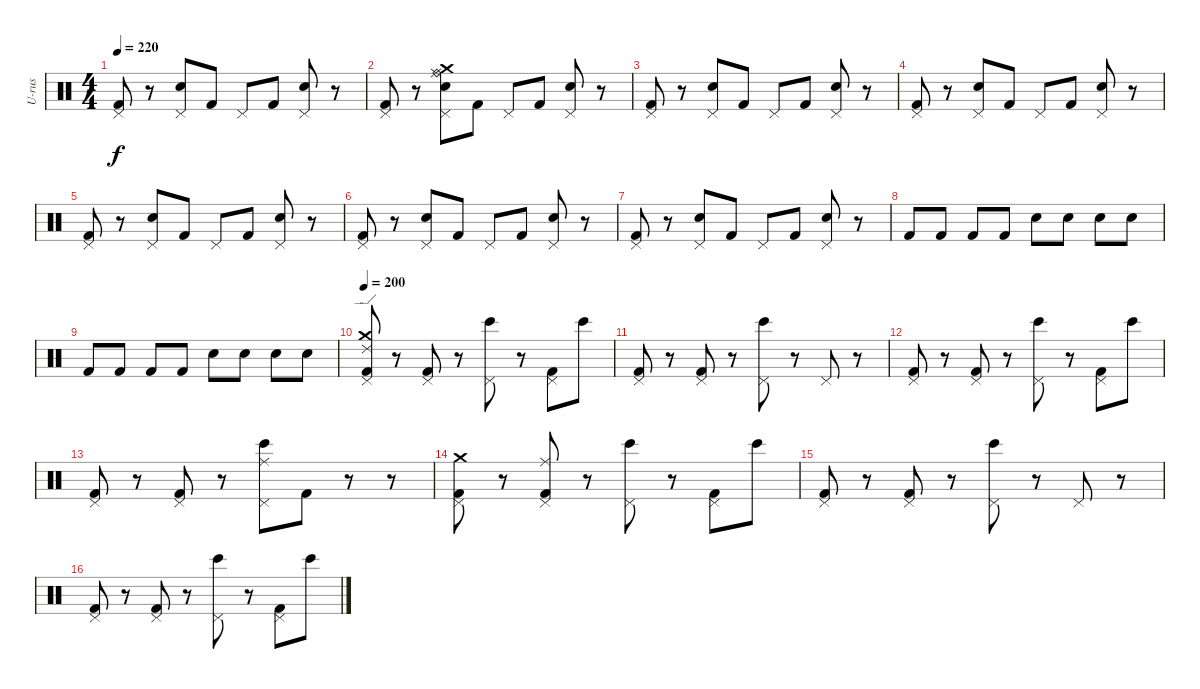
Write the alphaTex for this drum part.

\track ("U-rus" "U-rus") {instrument percussion}
\staff {score}
\articulation defaults
\ts (4 4)
\tempo 220
\clef neutral
\ks c
("Pedal Hi-Hat (hit)" "Kick (hit) 2").8{dy f} r.8 ("Pedal Hi-Hat (hit)" "Snare (hit) 2").8 "Kick (hit) 2".8 "Pedal Hi-Hat (hit)".8 "Kick (hit) 2".8 ("Pedal Hi-Hat (hit)" "Snare (hit) 2").8 r.8 |
("Pedal Hi-Hat (hit)" "Kick (hit) 2").8 r.8 ("Ride (bell)" "Ride (middle)" "Crash medium (hit)" "Pedal Hi-Hat (hit)" "Snare (hit) 2").8 "Kick (hit) 2".8 "Pedal Hi-Hat (hit)".8 "Kick (hit) 2".8 ("Pedal Hi-Hat (hit)" "Snare (hit) 2").8 r.8 |
("Pedal Hi-Hat (hit)" "Kick (hit) 2").8 r.8 ("Pedal Hi-Hat (hit)" "Snare (hit) 2").8 "Kick (hit) 2".8 "Pedal Hi-Hat (hit)".8 "Kick (hit) 2".8 ("Pedal Hi-Hat (hit)" "Snare (hit) 2").8 r.8 |
("Pedal Hi-Hat (hit)" "Kick (hit) 2").8 r.8 ("Pedal Hi-Hat (hit)" "Snare (hit) 2").8 "Kick (hit) 2".8 "Pedal Hi-Hat (hit)".8 "Kick (hit) 2".8 ("Pedal Hi-Hat (hit)" "Snare (hit) 2").8 r.8 |
("Pedal Hi-Hat (hit)" "Kick (hit) 2").8 r.8 ("Pedal Hi-Hat (hit)" "Snare (hit) 2").8 "Kick (hit) 2".8 "Pedal Hi-Hat (hit)".8 "Kick (hit) 2".8 ("Pedal Hi-Hat (hit)" "Snare (hit) 2").8 r.8 |
("Pedal Hi-Hat (hit)" "Kick (hit) 2").8 r.8 ("Pedal Hi-Hat (hit)" "Snare (hit) 2").8 "Kick (hit) 2".8 "Pedal Hi-Hat (hit)".8 "Kick (hit) 2".8 ("Pedal Hi-Hat (hit)" "Snare (hit) 2").8 r.8 |
("Pedal Hi-Hat (hit)" "Kick (hit) 2").8 r.8 ("Pedal Hi-Hat (hit)" "Snare (hit) 2").8 "Kick (hit) 2".8 "Pedal Hi-Hat (hit)".8 "Kick (hit) 2".8 ("Pedal Hi-Hat (hit)" "Snare (hit) 2").8 r.8 |
"Kick (hit) 2".8 "Kick (hit) 2".8 "Kick (hit) 2".8 "Kick (hit) 2".8 "Snare (hit) 2".8 "Snare (hit) 2".8 "Snare (hit) 2".8 "Snare (hit) 2".8 |
"Kick (hit) 2".8 "Kick (hit) 2".8 "Kick (hit) 2".8 "Kick (hit) 2".8 "Snare (hit) 2".8 "Snare (hit) 2".8 "Snare (hit) 2".8 "Snare (hit) 2".8 |
\tempo 200
("Pedal Hi-Hat (hit)" "Ride (edge) 2" "Crash medium (hit)" "Kick (hit) 2").8 r.8 ("Pedal Hi-Hat (hit)" "Kick (hit) 2").8 r.8 ("Bongo High (hit)" "Pedal Hi-Hat (hit)").8 r.8 ("Pedal Hi-Hat (hit)" "Kick (hit) 2").8 "Bongo High (hit)".8 |
("Pedal Hi-Hat (hit)" "Kick (hit) 2").8 r.8 ("Pedal Hi-Hat (hit)" "Kick (hit) 2").8 r.8 ("Bongo High (hit)" "Pedal Hi-Hat (hit)").8 r.8 "Pedal Hi-Hat (hit)".8 r.8 |
("Pedal Hi-Hat (hit)" "Kick (hit) 2").8 r.8 ("Pedal Hi-Hat (hit)" "Kick (hit) 2").8 r.8 ("Bongo High (hit)" "Pedal Hi-Hat (hit)").8 r.8 ("Pedal Hi-Hat (hit)" "Kick (hit) 2").8 "Bongo High (hit)".8 |
("Pedal Hi-Hat (hit)" "Kick (hit) 2").8 r.8 ("Pedal Hi-Hat (hit)" "Kick (hit) 2").8 r.8 ("Pedal Hi-Hat (hit)" "Ride (middle)" "Bongo High (hit)").8 "Kick (hit) 2".8 r.8 r.8 |
("Crash medium (hit)" "Pedal Hi-Hat (hit)" "Kick (hit) 2").8 r.8 ("Ride (middle)" "Pedal Hi-Hat (hit)" "Kick (hit) 2").8 r.8 ("Bongo High (hit)" "Pedal Hi-Hat (hit)").8 r.8 ("Pedal Hi-Hat (hit)" "Kick (hit) 2").8 "Bongo High (hit)".8 |
("Pedal Hi-Hat (hit)" "Kick (hit) 2").8 r.8 ("Pedal Hi-Hat (hit)" "Kick (hit) 2").8 r.8 ("Bongo High (hit)" "Pedal Hi-Hat (hit)").8 r.8 "Pedal Hi-Hat (hit)".8 r.8 |
("Pedal Hi-Hat (hit)" "Kick (hit) 2").8 r.8 ("Pedal Hi-Hat (hit)" "Kick (hit) 2").8 r.8 ("Bongo High (hit)" "Pedal Hi-Hat (hit)").8 r.8 ("Pedal Hi-Hat (hit)" "Kick (hit) 2").8 "Bongo High (hit)".8
